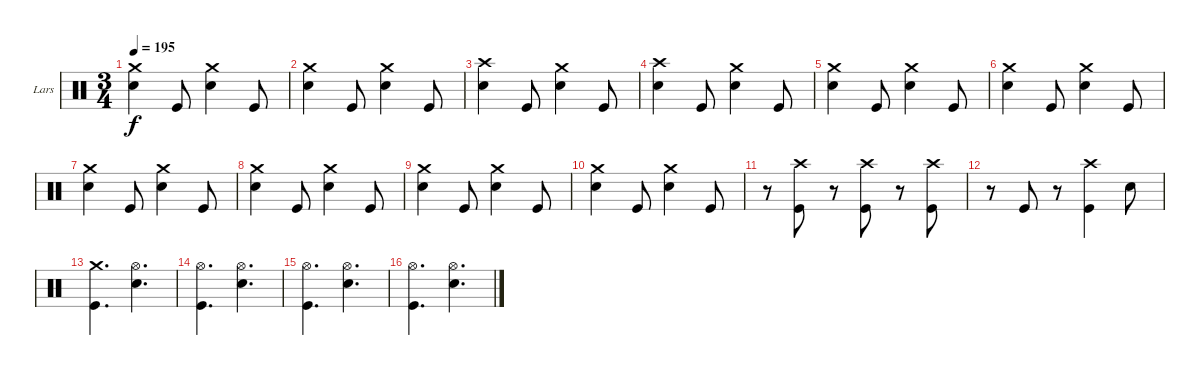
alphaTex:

\bracketExtendMode groupsimilarinstruments
\firstSystemTrackNameOrientation horizontal
\otherSystemsTrackNameOrientation horizontal
\track ("Drumkit" "Lars") {instrument percussion}
\staff {score}
\articulation defaults
\ts (3 4)
\tempo 195
\clef neutral
\ks c
("Crash medium (hit)" "Snare (hit) 2").4{dy f} "Kick (hit)".8 ("Crash medium (hit)" "Snare (hit) 2").4 "Kick (hit)".8 |
("Crash medium (hit)" "Snare (hit) 2").4 "Kick (hit)".8 ("Crash medium (hit)" "Snare (hit) 2").4 "Kick (hit)".8 |
("Crash high (hit)" "Snare (hit) 2").4 "Kick (hit)".8 ("Crash medium (hit)" "Snare (hit) 2").4 "Kick (hit)".8 |
("Crash high (hit)" "Snare (hit) 2").4 "Kick (hit)".8 ("Crash medium (hit)" "Snare (hit) 2").4 "Kick (hit)".8 |
("Crash medium (hit)" "Snare (hit) 2").4 "Kick (hit)".8 ("Crash medium (hit)" "Snare (hit) 2").4 "Kick (hit)".8 |
("Crash medium (hit)" "Snare (hit) 2").4 "Kick (hit)".8 ("Crash medium (hit)" "Snare (hit) 2").4 "Kick (hit)".8 |
("Crash medium (hit)" "Snare (hit) 2").4 "Kick (hit)".8 ("Crash medium (hit)" "Snare (hit) 2").4 "Kick (hit)".8 |
("Crash medium (hit)" "Snare (hit) 2").4 "Kick (hit)".8 ("Crash medium (hit)" "Snare (hit) 2").4 "Kick (hit)".8 |
("Crash medium (hit)" "Snare (hit) 2").4 "Kick (hit)".8 ("Crash medium (hit)" "Snare (hit) 2").4 "Kick (hit)".8 |
("Crash medium (hit)" "Snare (hit) 2").4 "Kick (hit)".8 ("Crash medium (hit)" "Snare (hit) 2").4 "Kick (hit)".8 |
r.8 ("Crash high (hit)" "Kick (hit)").8 r.8 ("Crash high (hit)" "Kick (hit)").8 r.8 ("Crash high (hit)" "Kick (hit)").8 |
r.8 "Kick (hit)".8 r.8 ("Crash high (hit)" "Kick (hit)").4 "Snare (hit) 2".8 |
("Crash medium (hit)" "Kick (hit)").4{d} ("Hi-Hat (open)" "Snare (hit) 2").4{d} |
("Hi-Hat (open)" "Kick (hit)").4{d} ("Hi-Hat (open)" "Snare (hit) 2").4{d} |
("Hi-Hat (open)" "Kick (hit)").4{d} ("Hi-Hat (open)" "Snare (hit) 2").4{d} |
("Hi-Hat (open)" "Kick (hit)").4{d} ("Hi-Hat (open)" "Snare (hit) 2").4{d}
